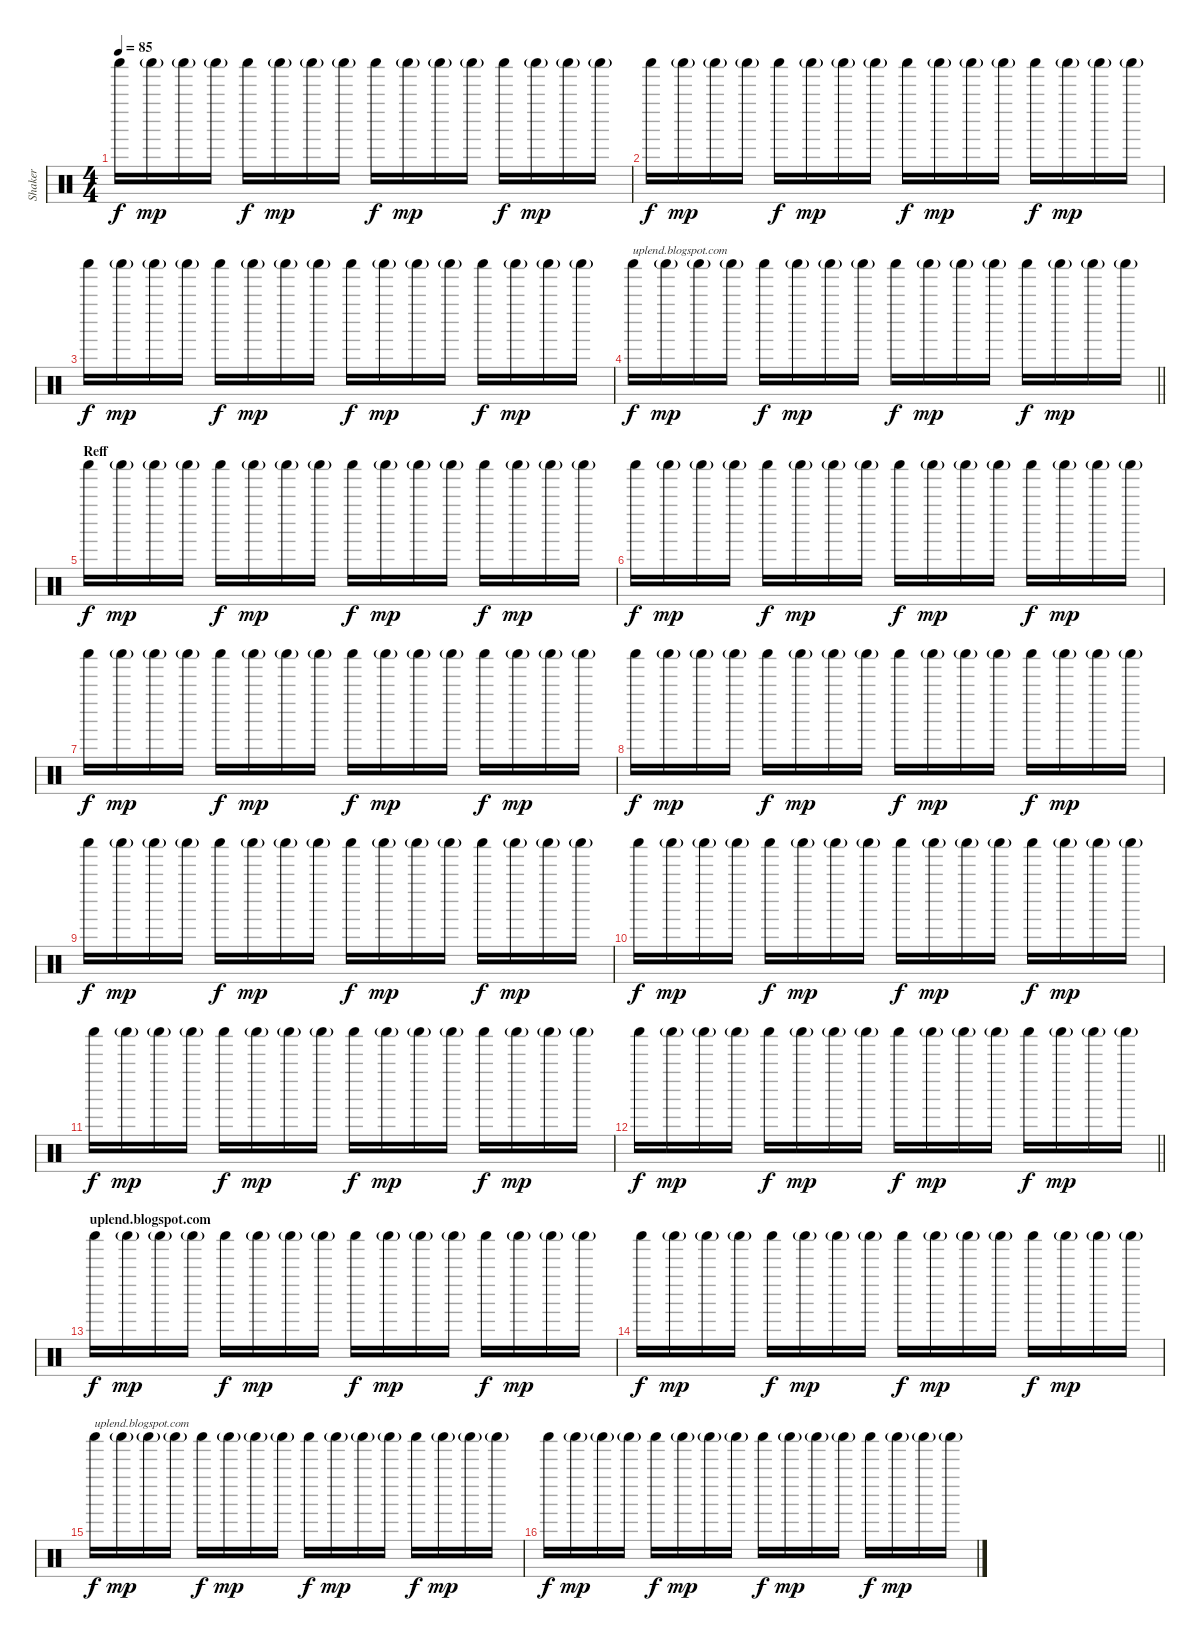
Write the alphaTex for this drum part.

\track ("Shaker" "Shaker") {instrument percussion}
\staff {score}
\articulation defaults
\ts (4 4)
\tempo 85
\clef neutral
\ks c "Shaker (hit)".16{dy f} "Shaker (hit)"{g}.16{dy mp} "Shaker (hit)"{g}.16 "Shaker (hit)"{g}.16 "Shaker (hit)".16{dy f} "Shaker (hit)"{g}.16{dy mp} "Shaker (hit)"{g}.16 "Shaker (hit)"{g}.16 "Shaker (hit)".16{dy f} "Shaker (hit)"{g}.16{dy mp} "Shaker (hit)"{g}.16 "Shaker (hit)"{g}.16 "Shaker (hit)".16{dy f} "Shaker (hit)"{g}.16{dy mp} "Shaker (hit)"{g}.16 "Shaker (hit)"{g}.16
|
"Shaker (hit)".16{dy f} "Shaker (hit)"{g}.16{dy mp} "Shaker (hit)"{g}.16 "Shaker (hit)"{g}.16 "Shaker (hit)".16{dy f} "Shaker (hit)"{g}.16{dy mp} "Shaker (hit)"{g}.16 "Shaker (hit)"{g}.16 "Shaker (hit)".16{dy f} "Shaker (hit)"{g}.16{dy mp} "Shaker (hit)"{g}.16 "Shaker (hit)"{g}.16 "Shaker (hit)".16{dy f} "Shaker (hit)"{g}.16{dy mp} "Shaker (hit)"{g}.16 "Shaker (hit)"{g}.16 |
"Shaker (hit)".16{dy f} "Shaker (hit)"{g}.16{dy mp} "Shaker (hit)"{g}.16 "Shaker (hit)"{g}.16 "Shaker (hit)".16{dy f} "Shaker (hit)"{g}.16{dy mp} "Shaker (hit)"{g}.16 "Shaker (hit)"{g}.16 "Shaker (hit)".16{dy f} "Shaker (hit)"{g}.16{dy mp} "Shaker (hit)"{g}.16 "Shaker (hit)"{g}.16 "Shaker (hit)".16{dy f} "Shaker (hit)"{g}.16{dy mp} "Shaker (hit)"{g}.16 "Shaker (hit)"{g}.16 |
\barLineRight lightlight "Shaker (hit)".16{txt "uplend.blogspot.com" dy f} "Shaker (hit)"{g}.16{dy mp} "Shaker (hit)"{g}.16 "Shaker (hit)"{g}.16 "Shaker (hit)".16{dy f} "Shaker (hit)"{g}.16{dy mp} "Shaker (hit)"{g}.16 "Shaker (hit)"{g}.16 "Shaker (hit)".16{dy f} "Shaker (hit)"{g}.16{dy mp} "Shaker (hit)"{g}.16 "Shaker (hit)"{g}.16 "Shaker (hit)".16{dy f} "Shaker (hit)"{g}.16{dy mp} "Shaker (hit)"{g}.16 "Shaker (hit)"{g}.16
|
\section ("" "Reff")
"Shaker (hit)".16{dy f} "Shaker (hit)"{g}.16{dy mp} "Shaker (hit)"{g}.16 "Shaker (hit)"{g}.16 "Shaker (hit)".16{dy f} "Shaker (hit)"{g}.16{dy mp} "Shaker (hit)"{g}.16 "Shaker (hit)"{g}.16 "Shaker (hit)".16{dy f} "Shaker (hit)"{g}.16{dy mp} "Shaker (hit)"{g}.16 "Shaker (hit)"{g}.16 "Shaker (hit)".16{dy f} "Shaker (hit)"{g}.16{dy mp} "Shaker (hit)"{g}.16 "Shaker (hit)"{g}.16 |
"Shaker (hit)".16{dy f} "Shaker (hit)"{g}.16{dy mp} "Shaker (hit)"{g}.16 "Shaker (hit)"{g}.16 "Shaker (hit)".16{dy f} "Shaker (hit)"{g}.16{dy mp} "Shaker (hit)"{g}.16 "Shaker (hit)"{g}.16 "Shaker (hit)".16{dy f} "Shaker (hit)"{g}.16{dy mp} "Shaker (hit)"{g}.16 "Shaker (hit)"{g}.16 "Shaker (hit)".16{dy f} "Shaker (hit)"{g}.16{dy mp} "Shaker (hit)"{g}.16 "Shaker (hit)"{g}.16 |
"Shaker (hit)".16{dy f} "Shaker (hit)"{g}.16{dy mp} "Shaker (hit)"{g}.16 "Shaker (hit)"{g}.16 "Shaker (hit)".16{dy f} "Shaker (hit)"{g}.16{dy mp} "Shaker (hit)"{g}.16 "Shaker (hit)"{g}.16 "Shaker (hit)".16{dy f} "Shaker (hit)"{g}.16{dy mp} "Shaker (hit)"{g}.16 "Shaker (hit)"{g}.16 "Shaker (hit)".16{dy f} "Shaker (hit)"{g}.16{dy mp} "Shaker (hit)"{g}.16 "Shaker (hit)"{g}.16 |
"Shaker (hit)".16{dy f} "Shaker (hit)"{g}.16{dy mp} "Shaker (hit)"{g}.16 "Shaker (hit)"{g}.16 "Shaker (hit)".16{dy f} "Shaker (hit)"{g}.16{dy mp} "Shaker (hit)"{g}.16 "Shaker (hit)"{g}.16 "Shaker (hit)".16{dy f} "Shaker (hit)"{g}.16{dy mp} "Shaker (hit)"{g}.16 "Shaker (hit)"{g}.16 "Shaker (hit)".16{dy f} "Shaker (hit)"{g}.16{dy mp} "Shaker (hit)"{g}.16 "Shaker (hit)"{g}.16 |
"Shaker (hit)".16{dy f} "Shaker (hit)"{g}.16{dy mp} "Shaker (hit)"{g}.16 "Shaker (hit)"{g}.16 "Shaker (hit)".16{dy f} "Shaker (hit)"{g}.16{dy mp} "Shaker (hit)"{g}.16 "Shaker (hit)"{g}.16 "Shaker (hit)".16{dy f} "Shaker (hit)"{g}.16{dy mp} "Shaker (hit)"{g}.16 "Shaker (hit)"{g}.16 "Shaker (hit)".16{dy f} "Shaker (hit)"{g}.16{dy mp} "Shaker (hit)"{g}.16 "Shaker (hit)"{g}.16 |
"Shaker (hit)".16{dy f} "Shaker (hit)"{g}.16{dy mp} "Shaker (hit)"{g}.16 "Shaker (hit)"{g}.16 "Shaker (hit)".16{dy f} "Shaker (hit)"{g}.16{dy mp} "Shaker (hit)"{g}.16 "Shaker (hit)"{g}.16 "Shaker (hit)".16{dy f} "Shaker (hit)"{g}.16{dy mp} "Shaker (hit)"{g}.16 "Shaker (hit)"{g}.16 "Shaker (hit)".16{dy f} "Shaker (hit)"{g}.16{dy mp} "Shaker (hit)"{g}.16 "Shaker (hit)"{g}.16 |
"Shaker (hit)".16{dy f} "Shaker (hit)"{g}.16{dy mp} "Shaker (hit)"{g}.16 "Shaker (hit)"{g}.16 "Shaker (hit)".16{dy f} "Shaker (hit)"{g}.16{dy mp} "Shaker (hit)"{g}.16 "Shaker (hit)"{g}.16 "Shaker (hit)".16{dy f} "Shaker (hit)"{g}.16{dy mp} "Shaker (hit)"{g}.16 "Shaker (hit)"{g}.16 "Shaker (hit)".16{dy f} "Shaker (hit)"{g}.16{dy mp} "Shaker (hit)"{g}.16 "Shaker (hit)"{g}.16 |
\barLineRight lightlight "Shaker (hit)".16{dy f} "Shaker (hit)"{g}.16{dy mp} "Shaker (hit)"{g}.16 "Shaker (hit)"{g}.16 "Shaker (hit)".16{dy f} "Shaker (hit)"{g}.16{dy mp} "Shaker (hit)"{g}.16 "Shaker (hit)"{g}.16 "Shaker (hit)".16{dy f} "Shaker (hit)"{g}.16{dy mp} "Shaker (hit)"{g}.16 "Shaker (hit)"{g}.16 "Shaker (hit)".16{dy f} "Shaker (hit)"{g}.16{dy mp} "Shaker (hit)"{g}.16 "Shaker (hit)"{g}.16
|
\section ("" "uplend.blogspot.com")
"Shaker (hit)".16{dy f} "Shaker (hit)"{g}.16{dy mp} "Shaker (hit)"{g}.16 "Shaker (hit)"{g}.16 "Shaker (hit)".16{dy f} "Shaker (hit)"{g}.16{dy mp} "Shaker (hit)"{g}.16 "Shaker (hit)"{g}.16 "Shaker (hit)".16{dy f} "Shaker (hit)"{g}.16{dy mp} "Shaker (hit)"{g}.16 "Shaker (hit)"{g}.16 "Shaker (hit)".16{dy f} "Shaker (hit)"{g}.16{dy mp} "Shaker (hit)"{g}.16 "Shaker (hit)"{g}.16 |
"Shaker (hit)".16{dy f} "Shaker (hit)"{g}.16{dy mp} "Shaker (hit)"{g}.16 "Shaker (hit)"{g}.16 "Shaker (hit)".16{dy f} "Shaker (hit)"{g}.16{dy mp} "Shaker (hit)"{g}.16 "Shaker (hit)"{g}.16 "Shaker (hit)".16{dy f} "Shaker (hit)"{g}.16{dy mp} "Shaker (hit)"{g}.16 "Shaker (hit)"{g}.16 "Shaker (hit)".16{dy f} "Shaker (hit)"{g}.16{dy mp} "Shaker (hit)"{g}.16 "Shaker (hit)"{g}.16 |
"Shaker (hit)".16{txt "uplend.blogspot.com" dy f} "Shaker (hit)"{g}.16{dy mp} "Shaker (hit)"{g}.16 "Shaker (hit)"{g}.16 "Shaker (hit)".16{dy f} "Shaker (hit)"{g}.16{dy mp} "Shaker (hit)"{g}.16 "Shaker (hit)"{g}.16 "Shaker (hit)".16{dy f} "Shaker (hit)"{g}.16{dy mp} "Shaker (hit)"{g}.16 "Shaker (hit)"{g}.16 "Shaker (hit)".16{dy f} "Shaker (hit)"{g}.16{dy mp} "Shaker (hit)"{g}.16 "Shaker (hit)"{g}.16 |
"Shaker (hit)".16{dy f} "Shaker (hit)"{g}.16{dy mp} "Shaker (hit)"{g}.16 "Shaker (hit)"{g}.16 "Shaker (hit)".16{dy f} "Shaker (hit)"{g}.16{dy mp} "Shaker (hit)"{g}.16 "Shaker (hit)"{g}.16 "Shaker (hit)".16{dy f} "Shaker (hit)"{g}.16{dy mp} "Shaker (hit)"{g}.16 "Shaker (hit)"{g}.16 "Shaker (hit)".16{dy f} "Shaker (hit)"{g}.16{dy mp} "Shaker (hit)"{g}.16 "Shaker (hit)"{g}.16
